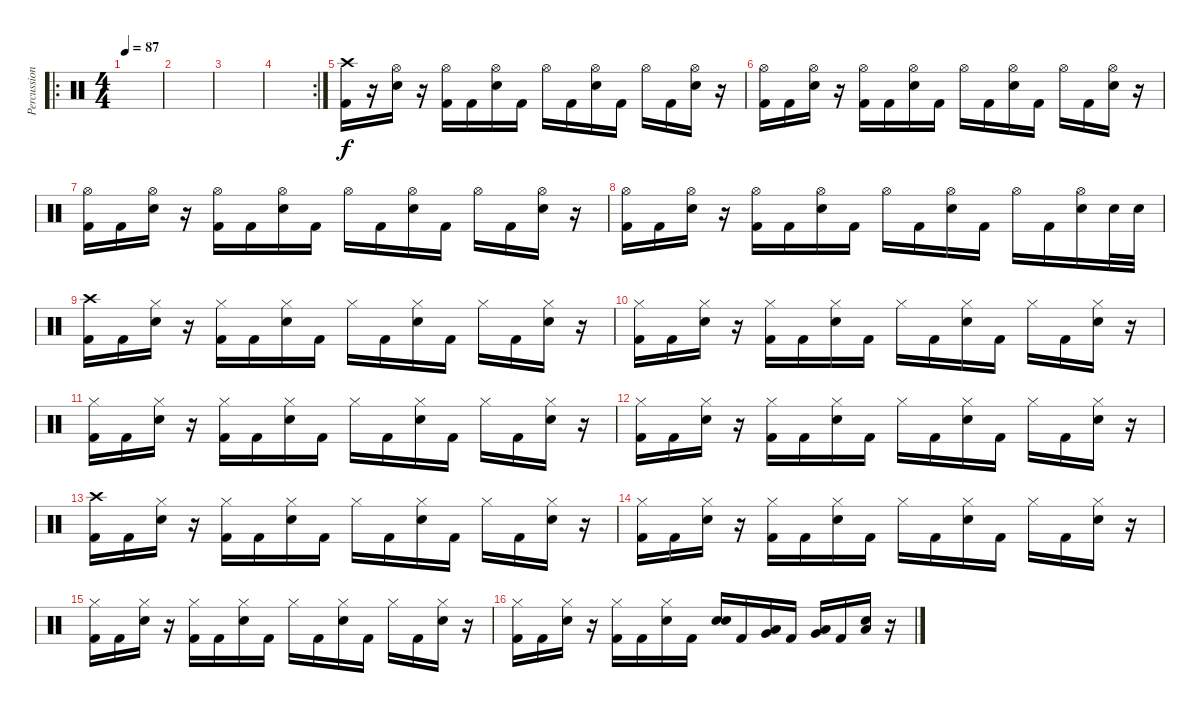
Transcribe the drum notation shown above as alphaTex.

\track ("Percussion" "Percussion") {instrument percussion}
\staff {score}
\articulation defaults
\ro
\ts (4 4)
\tempo 87
\clef neutral
\ks c
|
|
|
\rc 2
|
("Kick (hit) 2" "Crash high (hit)").16 r.16 ("Electric Snare (hit)" "Hi-Hat (open)").16 r.16 ("Kick (hit) 2" "Hi-Hat (open)").16 "Kick (hit) 2".16 ("Electric Snare (hit)" "Hi-Hat (open)").16 "Kick (hit) 2".16 "Hi-Hat (open)".16 "Kick (hit) 2".16 ("Electric Snare (hit)" "Hi-Hat (open)").16 "Kick (hit) 2".16 "Hi-Hat (open)".16 "Kick (hit) 2".16 ("Electric Snare (hit)" "Hi-Hat (open)").16 r.16 |
("Kick (hit) 2" "Hi-Hat (open)").16 "Kick (hit) 2".16 ("Electric Snare (hit)" "Hi-Hat (open)").16 r.16 ("Kick (hit) 2" "Hi-Hat (open)").16 "Kick (hit) 2".16 ("Electric Snare (hit)" "Hi-Hat (open)").16 "Kick (hit) 2".16 "Hi-Hat (open)".16 "Kick (hit) 2".16 ("Electric Snare (hit)" "Hi-Hat (open)").16 "Kick (hit) 2".16 "Hi-Hat (open)".16 "Kick (hit) 2".16 ("Electric Snare (hit)" "Hi-Hat (open)").16 r.16 |
("Kick (hit) 2" "Hi-Hat (open)").16 "Kick (hit) 2".16 ("Electric Snare (hit)" "Hi-Hat (open)").16 r.16 ("Kick (hit) 2" "Hi-Hat (open)").16 "Kick (hit) 2".16 ("Electric Snare (hit)" "Hi-Hat (open)").16 "Kick (hit) 2".16 "Hi-Hat (open)".16 "Kick (hit) 2".16 ("Electric Snare (hit)" "Hi-Hat (open)").16 "Kick (hit) 2".16 "Hi-Hat (open)".16 "Kick (hit) 2".16 ("Electric Snare (hit)" "Hi-Hat (open)").16 r.16 |
("Kick (hit) 2" "Hi-Hat (open)").16 "Kick (hit) 2".16 ("Electric Snare (hit)" "Hi-Hat (open)").16 r.16 ("Kick (hit) 2" "Hi-Hat (open)").16 "Kick (hit) 2".16 ("Electric Snare (hit)" "Hi-Hat (open)").16 "Kick (hit) 2".16 "Hi-Hat (open)".16 "Kick (hit) 2".16 ("Electric Snare (hit)" "Hi-Hat (open)").16 "Kick (hit) 2".16 "Hi-Hat (open)".16 "Kick (hit) 2".16 ("Electric Snare (hit)" "Hi-Hat (open)").16 "Electric Snare (hit)".32 "Electric Snare (hit)".32 |
("Kick (hit) 2" "Crash high (hit)").16 "Kick (hit) 2".16 ("Electric Snare (hit)" "Hi-Hat (closed)").16 r.16 ("Kick (hit) 2" "Hi-Hat (closed)").16 "Kick (hit) 2".16 ("Electric Snare (hit)" "Hi-Hat (closed)").16 "Kick (hit) 2".16 "Hi-Hat (closed)".16 "Kick (hit) 2".16 ("Electric Snare (hit)" "Hi-Hat (closed)").16 "Kick (hit) 2".16 "Hi-Hat (closed)".16 "Kick (hit) 2".16 ("Electric Snare (hit)" "Hi-Hat (closed)").16 r.16 |
("Kick (hit) 2" "Hi-Hat (closed)").16 "Kick (hit) 2".16 ("Electric Snare (hit)" "Hi-Hat (closed)").16 r.16 ("Kick (hit) 2" "Hi-Hat (closed)").16 "Kick (hit) 2".16 ("Electric Snare (hit)" "Hi-Hat (closed)").16 "Kick (hit) 2".16 "Hi-Hat (closed)".16 "Kick (hit) 2".16 ("Electric Snare (hit)" "Hi-Hat (closed)").16 "Kick (hit) 2".16 "Hi-Hat (closed)".16 "Kick (hit) 2".16 ("Electric Snare (hit)" "Hi-Hat (closed)").16 r.16 |
("Kick (hit) 2" "Hi-Hat (closed)").16 "Kick (hit) 2".16 ("Electric Snare (hit)" "Hi-Hat (closed)").16 r.16 ("Kick (hit) 2" "Hi-Hat (closed)").16 "Kick (hit) 2".16 ("Electric Snare (hit)" "Hi-Hat (closed)").16 "Kick (hit) 2".16 "Hi-Hat (closed)".16 "Kick (hit) 2".16 ("Electric Snare (hit)" "Hi-Hat (closed)").16 "Kick (hit) 2".16 "Hi-Hat (closed)".16 "Kick (hit) 2".16 ("Electric Snare (hit)" "Hi-Hat (closed)").16 r.16 |
("Kick (hit) 2" "Hi-Hat (closed)").16 "Kick (hit) 2".16 ("Electric Snare (hit)" "Hi-Hat (closed)").16 r.16 ("Kick (hit) 2" "Hi-Hat (closed)").16 "Kick (hit) 2".16 ("Electric Snare (hit)" "Hi-Hat (closed)").16 "Kick (hit) 2".16 "Hi-Hat (closed)".16 "Kick (hit) 2".16 ("Electric Snare (hit)" "Hi-Hat (closed)").16 "Kick (hit) 2".16 "Hi-Hat (closed)".16 "Kick (hit) 2".16 ("Electric Snare (hit)" "Hi-Hat (closed)").16 r.16 |
("Kick (hit) 2" "Crash high (hit)").16 "Kick (hit) 2".16 ("Electric Snare (hit)" "Hi-Hat (closed)").16 r.16 ("Kick (hit) 2" "Hi-Hat (closed)").16 "Kick (hit) 2".16 ("Electric Snare (hit)" "Hi-Hat (closed)").16 "Kick (hit) 2".16 "Hi-Hat (closed)".16 "Kick (hit) 2".16 ("Electric Snare (hit)" "Hi-Hat (closed)").16 "Kick (hit) 2".16 "Hi-Hat (closed)".16 "Kick (hit) 2".16 ("Electric Snare (hit)" "Hi-Hat (closed)").16 r.16 |
("Kick (hit) 2" "Hi-Hat (closed)").16 "Kick (hit) 2".16 ("Electric Snare (hit)" "Hi-Hat (closed)").16 r.16 ("Kick (hit) 2" "Hi-Hat (closed)").16 "Kick (hit) 2".16 ("Electric Snare (hit)" "Hi-Hat (closed)").16 "Kick (hit) 2".16 "Hi-Hat (closed)".16 "Kick (hit) 2".16 ("Electric Snare (hit)" "Hi-Hat (closed)").16 "Kick (hit) 2".16 "Hi-Hat (closed)".16 "Kick (hit) 2".16 ("Electric Snare (hit)" "Hi-Hat (closed)").16 r.16 |
("Kick (hit) 2" "Hi-Hat (closed)").16 "Kick (hit) 2".16 ("Electric Snare (hit)" "Hi-Hat (closed)").16 r.16 ("Kick (hit) 2" "Hi-Hat (closed)").16 "Kick (hit) 2".16 ("Electric Snare (hit)" "Hi-Hat (closed)").16 "Kick (hit) 2".16 "Hi-Hat (closed)".16 "Kick (hit) 2".16 ("Electric Snare (hit)" "Hi-Hat (closed)").16 "Kick (hit) 2".16 "Hi-Hat (closed)".16 "Kick (hit) 2".16 ("Electric Snare (hit)" "Hi-Hat (closed)").16 r.16 |
("Kick (hit) 2" "Hi-Hat (closed)").16 "Kick (hit) 2".16 ("Electric Snare (hit)" "Hi-Hat (closed)").16 r.16 ("Kick (hit) 2" "Hi-Hat (closed)").16 "Kick (hit) 2".16 ("Electric Snare (hit)" "Hi-Hat (closed)").16 "Kick (hit) 2".16 ("Electric Snare (hit)" "Electric Snare (hit)").16 "Kick (hit) 2".16 ("Low Tom (hit)" "Very Low Tom (hit)").16 "Kick (hit) 2".16 ("Very Low Tom (hit)" "Low Tom (hit)").16 "Kick (hit) 2".16 ("Low Floor Tom (hit)" "Electric Snare (hit)").16 r.16
